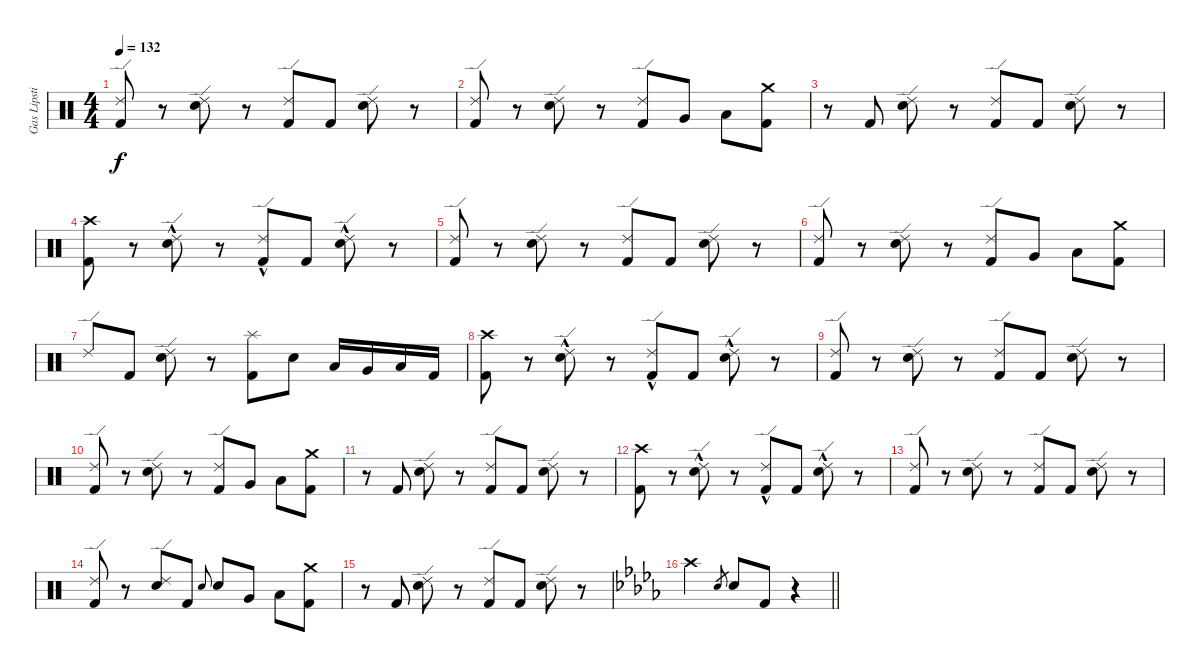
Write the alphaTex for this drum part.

\track ("Gas Lipstick (Drums)" "Gas Lipsti") {instrument percussion}
\staff {score}
\articulation defaults
\ts (4 4)
\tempo 132
\clef neutral
\ks c
("Ride (edge) 2" "Kick (hit) 2").8{dy f} r.8 ("Ride (edge) 2" "Snare (hit) 2").8 r.8 ("Ride (edge) 2" "Kick (hit) 2").8 "Kick (hit) 2".8 ("Ride (edge) 2" "Snare (hit) 2").8 r.8 |
("Ride (edge) 2" "Kick (hit) 2").8 r.8 ("Ride (edge) 2" "Snare (hit) 2").8 r.8 ("Ride (edge) 2" "Kick (hit) 2").8 "Very Low Tom (hit)".8 "Low Floor Tom (hit)".8 ("Crash medium (hit)" "Kick (hit) 2").8 |
r.8 "Kick (hit) 2".8 ("Ride (edge) 2" "Snare (hit) 2").8 r.8 ("Ride (edge) 2" "Kick (hit) 2").8 "Kick (hit) 2".8 ("Ride (edge) 2" "Snare (hit) 2").8 r.8 |
("Crash high (hit)" "Kick (hit) 2").8 r.8 ("Ride (edge) 2"{hac} "Snare (hit) 2").8 r.8 ("Ride (edge) 2"{hac} "Kick (hit) 2").8 "Kick (hit) 2".8 ("Ride (edge) 2"{hac} "Snare (hit) 2").8 r.8 |
("Ride (edge) 2" "Kick (hit) 2").8 r.8 ("Ride (edge) 2" "Snare (hit) 2").8 r.8 ("Ride (edge) 2" "Kick (hit) 2").8 "Kick (hit) 2".8 ("Ride (edge) 2" "Snare (hit) 2").8 r.8 |
("Ride (edge) 2" "Kick (hit) 2").8 r.8 ("Ride (edge) 2" "Snare (hit) 2").8 r.8 ("Ride (edge) 2" "Kick (hit) 2").8 "Very Low Tom (hit)".8 "Low Floor Tom (hit)".8 ("Crash medium (hit)" "Kick (hit) 2").8 |
"Ride (edge) 2".8 "Kick (hit) 2".8 ("Ride (edge) 2" "Snare (hit) 2").8 r.8 ("Splash (hit)" "Kick (hit) 2").8 "Snare (hit) 2".8 "Low Tom (hit)".16 "Very Low Tom (hit)".16 "Low Floor Tom (hit)".16 "Kick (hit) 2".16 |
("Crash high (hit)" "Kick (hit) 2").8 r.8 ("Ride (edge) 2"{hac} "Snare (hit) 2").8 r.8 ("Ride (edge) 2"{hac} "Kick (hit) 2").8 "Kick (hit) 2".8 ("Ride (edge) 2"{hac} "Snare (hit) 2").8 r.8 |
("Ride (edge) 2" "Kick (hit) 2").8 r.8 ("Ride (edge) 2" "Snare (hit) 2").8 r.8 ("Ride (edge) 2" "Kick (hit) 2").8 "Kick (hit) 2".8 ("Ride (edge) 2" "Snare (hit) 2").8 r.8 |
("Ride (edge) 2" "Kick (hit) 2").8 r.8 ("Ride (edge) 2" "Snare (hit) 2").8 r.8 ("Ride (edge) 2" "Kick (hit) 2").8 "Very Low Tom (hit)".8 "Low Floor Tom (hit)".8 ("Crash medium (hit)" "Kick (hit) 2").8 |
r.8 "Kick (hit) 2".8 ("Ride (edge) 2" "Snare (hit) 2").8 r.8 ("Ride (edge) 2" "Kick (hit) 2").8 "Kick (hit) 2".8 ("Ride (edge) 2" "Snare (hit) 2").8 r.8 |
("Crash high (hit)" "Kick (hit) 2").8 r.8 ("Ride (edge) 2"{hac} "Snare (hit) 2").8 r.8 ("Ride (edge) 2"{hac} "Kick (hit) 2").8 "Kick (hit) 2".8 ("Ride (edge) 2"{hac} "Snare (hit) 2").8 r.8 |
("Ride (edge) 2" "Kick (hit) 2").8 r.8 ("Ride (edge) 2" "Snare (hit) 2").8 r.8 ("Ride (edge) 2" "Kick (hit) 2").8 "Kick (hit) 2".8 ("Ride (edge) 2" "Snare (hit) 2").8 r.8 |
("Ride (edge) 2" "Kick (hit) 2").8 r.8 ("Ride (edge) 2" "Snare (hit) 2").8 "Kick (hit) 2".8 "Snare (hit) 2".8{gr onbeat} "Snare (hit) 2".8 "Very Low Tom (hit)".8 "Low Floor Tom (hit)".8 ("Crash medium (hit)" "Kick (hit) 2").8 |
r.8 "Kick (hit) 2".8 ("Ride (edge) 2" "Snare (hit) 2").8 r.8 ("Ride (edge) 2" "Kick (hit) 2").8 "Kick (hit) 2".8 ("Ride (edge) 2" "Snare (hit) 2").8 r.8 |
\barLineRight lightlight
\ks db "Crash high (hit)".2 "Snare (hit) 2".8{gr} "Snare (hit) 2".8 "Kick (hit) 2".8
r.4
